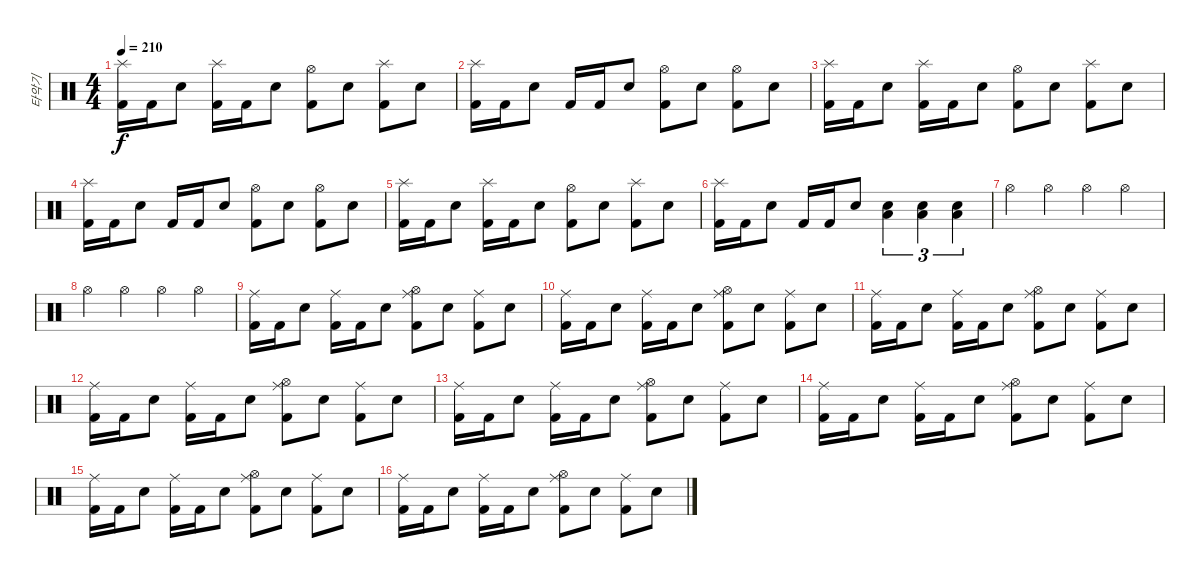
\track ("타악기" "타악기") {instrument percussion}
\staff {score}
\articulation defaults
\ts (4 4)
\tempo 210
\clef neutral
\ks c
("Splash (hit)" "Kick (hit) 2").16{dy f} "Kick (hit) 2".16 "Snare (hit) 2".8 ("Splash (hit)" "Kick (hit) 2").16 "Kick (hit) 2".16 "Snare (hit) 2".8 ("Hi-Hat (open)" "Kick (hit) 2").8 "Snare (hit) 2".8 ("Splash (hit)" "Kick (hit) 2").8 "Snare (hit) 2".8 |
("Splash (hit)" "Kick (hit) 2").16 "Kick (hit) 2".16 "Snare (hit) 2".8 "Kick (hit) 2".16 "Kick (hit) 2".16 "Snare (hit) 2".8 ("Hi-Hat (open)" "Kick (hit) 2").8 "Snare (hit) 2".8 ("Hi-Hat (open)" "Kick (hit) 2").8 "Snare (hit) 2".8 |
("Splash (hit)" "Kick (hit) 2").16 "Kick (hit) 2".16 "Snare (hit) 2".8 ("Splash (hit)" "Kick (hit) 2").16 "Kick (hit) 2".16 "Snare (hit) 2".8 ("Hi-Hat (open)" "Kick (hit) 2").8 "Snare (hit) 2".8 ("Splash (hit)" "Kick (hit) 2").8 "Snare (hit) 2".8 |
("Splash (hit)" "Kick (hit) 2").16 "Kick (hit) 2".16 "Snare (hit) 2".8 "Kick (hit) 2".16 "Kick (hit) 2".16 "Snare (hit) 2".8 ("Hi-Hat (open)" "Kick (hit) 2").8 "Snare (hit) 2".8 ("Hi-Hat (open)" "Kick (hit) 2").8 "Snare (hit) 2".8 |
("Splash (hit)" "Kick (hit) 2").16 "Kick (hit) 2".16 "Snare (hit) 2".8 ("Splash (hit)" "Kick (hit) 2").16 "Kick (hit) 2".16 "Snare (hit) 2".8 ("Hi-Hat (open)" "Kick (hit) 2").8 "Snare (hit) 2".8 ("Splash (hit)" "Kick (hit) 2").8 "Snare (hit) 2".8 |
("Splash (hit)" "Kick (hit) 2").16 "Kick (hit) 2".16 "Snare (hit) 2".8 "Kick (hit) 2".16 "Kick (hit) 2".16 "Snare (hit) 2".8 ("Low Tom (hit)" "Snare (hit) 2").4{tu (3 2)} ("Low Tom (hit)" "Snare (hit) 2").4{tu (3 2)} ("Low Tom (hit)" "Snare (hit) 2").4{tu (3 2)} |
"Hi-Hat (open)".4 "Hi-Hat (open)".4 "Hi-Hat (open)".4 "Hi-Hat (open)".4 |
"Hi-Hat (open)".4 "Hi-Hat (open)".4 "Hi-Hat (open)".4 "Hi-Hat (open)".4 |
("Ride (middle)" "Kick (hit) 2").16 "Kick (hit) 2".16 "Snare (hit) 2".8 ("Ride (middle)" "Kick (hit) 2").16 "Kick (hit) 2".16 "Snare (hit) 2".8 ("Ride (middle)" "Hi-Hat (open)" "Kick (hit) 2").8 "Snare (hit) 2".8 ("Ride (middle)" "Kick (hit) 2").8 "Snare (hit) 2".8 |
("Ride (middle)" "Kick (hit) 2").16 "Kick (hit) 2".16 "Snare (hit) 2".8 ("Ride (middle)" "Kick (hit) 2").16 "Kick (hit) 2".16 "Snare (hit) 2".8 ("Ride (middle)" "Hi-Hat (open)" "Kick (hit) 2").8 "Snare (hit) 2".8 ("Ride (middle)" "Kick (hit) 2").8 "Snare (hit) 2".8 |
("Ride (middle)" "Kick (hit) 2").16 "Kick (hit) 2".16 "Snare (hit) 2".8 ("Ride (middle)" "Kick (hit) 2").16 "Kick (hit) 2".16 "Snare (hit) 2".8 ("Ride (middle)" "Hi-Hat (open)" "Kick (hit) 2").8 "Snare (hit) 2".8 ("Ride (middle)" "Kick (hit) 2").8 "Snare (hit) 2".8 |
("Ride (middle)" "Kick (hit) 2").16 "Kick (hit) 2".16 "Snare (hit) 2".8 ("Ride (middle)" "Kick (hit) 2").16 "Kick (hit) 2".16 "Snare (hit) 2".8 ("Ride (middle)" "Hi-Hat (open)" "Kick (hit) 2").8 "Snare (hit) 2".8 ("Ride (middle)" "Kick (hit) 2").8 "Snare (hit) 2".8 |
("Ride (middle)" "Kick (hit) 2").16 "Kick (hit) 2".16 "Snare (hit) 2".8 ("Ride (middle)" "Kick (hit) 2").16 "Kick (hit) 2".16 "Snare (hit) 2".8 ("Ride (middle)" "Hi-Hat (open)" "Kick (hit) 2").8 "Snare (hit) 2".8 ("Ride (middle)" "Kick (hit) 2").8 "Snare (hit) 2".8 |
("Ride (middle)" "Kick (hit) 2").16 "Kick (hit) 2".16 "Snare (hit) 2".8 ("Ride (middle)" "Kick (hit) 2").16 "Kick (hit) 2".16 "Snare (hit) 2".8 ("Ride (middle)" "Hi-Hat (open)" "Kick (hit) 2").8 "Snare (hit) 2".8 ("Ride (middle)" "Kick (hit) 2").8 "Snare (hit) 2".8 |
("Ride (middle)" "Kick (hit) 2").16 "Kick (hit) 2".16 "Snare (hit) 2".8 ("Ride (middle)" "Kick (hit) 2").16 "Kick (hit) 2".16 "Snare (hit) 2".8 ("Ride (middle)" "Hi-Hat (open)" "Kick (hit) 2").8 "Snare (hit) 2".8 ("Ride (middle)" "Kick (hit) 2").8 "Snare (hit) 2".8 |
("Ride (middle)" "Kick (hit) 2").16 "Kick (hit) 2".16 "Snare (hit) 2".8 ("Ride (middle)" "Kick (hit) 2").16 "Kick (hit) 2".16 "Snare (hit) 2".8 ("Ride (middle)" "Hi-Hat (open)" "Kick (hit) 2").8 "Snare (hit) 2".8 ("Ride (middle)" "Kick (hit) 2").8 "Snare (hit) 2".8
